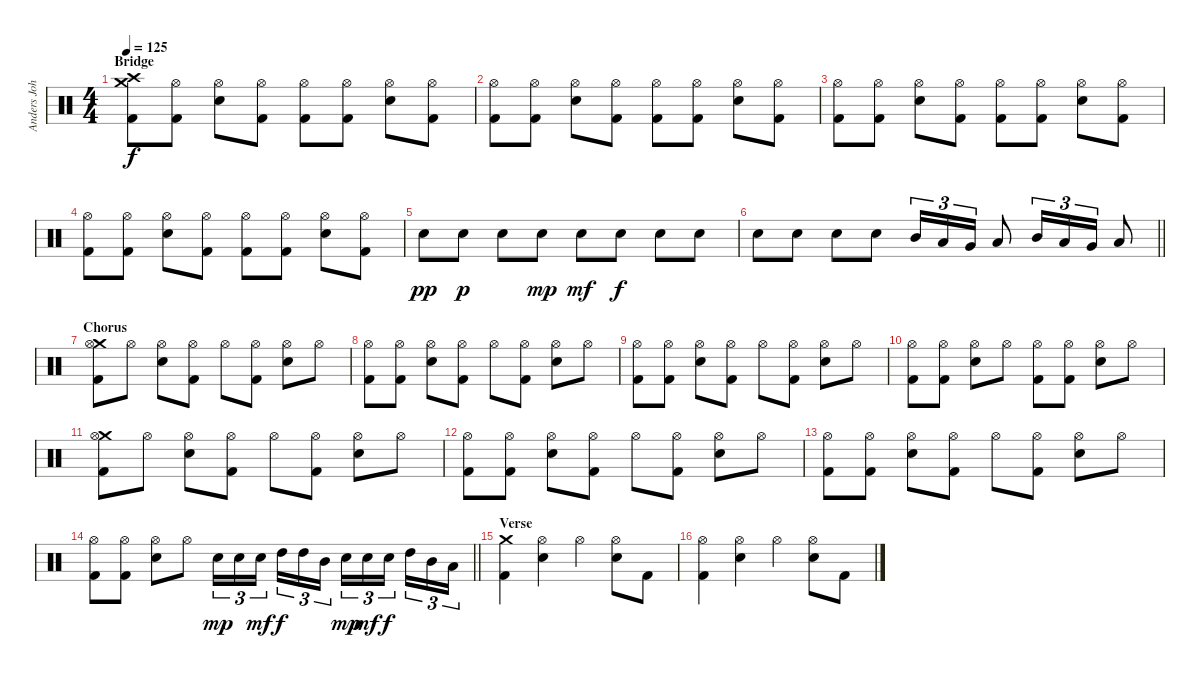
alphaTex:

\track ("Anders Johansson" "Anders Joh") {instrument percussion}
\staff {score}
\articulation defaults
\ts (4 4)
\section ("" "Bridge")
\tempo 125
\clef neutral
\ks c
("Crash high (hit)" "Crash medium (hit)" "Kick (hit) 2").8{dy f} ("Hi-Hat (open)" "Kick (hit) 2").8 ("Hi-Hat (open)" "Snare (hit) 2").8 ("Hi-Hat (open)" "Kick (hit) 2").8 ("Hi-Hat (open)" "Kick (hit) 2").8 ("Hi-Hat (open)" "Kick (hit) 2").8 ("Hi-Hat (open)" "Snare (hit) 2").8 ("Hi-Hat (open)" "Kick (hit) 2").8 |
("Hi-Hat (open)" "Kick (hit) 2").8 ("Hi-Hat (open)" "Kick (hit) 2").8 ("Hi-Hat (open)" "Snare (hit) 2").8 ("Hi-Hat (open)" "Kick (hit) 2").8 ("Hi-Hat (open)" "Kick (hit) 2").8 ("Hi-Hat (open)" "Kick (hit) 2").8 ("Hi-Hat (open)" "Snare (hit) 2").8 ("Hi-Hat (open)" "Kick (hit) 2").8 |
("Hi-Hat (open)" "Kick (hit) 2").8 ("Hi-Hat (open)" "Kick (hit) 2").8 ("Hi-Hat (open)" "Snare (hit) 2").8 ("Hi-Hat (open)" "Kick (hit) 2").8 ("Hi-Hat (open)" "Kick (hit) 2").8 ("Hi-Hat (open)" "Kick (hit) 2").8 ("Hi-Hat (open)" "Snare (hit) 2").8 ("Hi-Hat (open)" "Kick (hit) 2").8 |
("Hi-Hat (open)" "Kick (hit) 2").8 ("Hi-Hat (open)" "Kick (hit) 2").8 ("Hi-Hat (open)" "Snare (hit) 2").8 ("Hi-Hat (open)" "Kick (hit) 2").8 ("Hi-Hat (open)" "Kick (hit) 2").8 ("Hi-Hat (open)" "Kick (hit) 2").8 ("Hi-Hat (open)" "Snare (hit) 2").8 ("Hi-Hat (open)" "Kick (hit) 2").8 |
"Electric Snare (hit)".8{dy pp} "Electric Snare (hit)".8{dy p} "Electric Snare (hit)".8 "Electric Snare (hit)".8{dy mp} "Electric Snare (hit)".8{dy mf} "Electric Snare (hit)".8{dy f} "Electric Snare (hit)".8 "Electric Snare (hit)".8 |
\barLineRight lightlight "Electric Snare (hit)".8 "Electric Snare (hit)".8 "Electric Snare (hit)".8 "Electric Snare (hit)".8 "Mid Tom (hit)".16{tu (3 2)} "Low Tom (hit)".16{tu (3 2)} "Very Low Tom (hit)".16{tu (3 2)} "Low Floor Tom (hit)".8 "Mid Tom (hit)".16{tu (3 2)} "Low Tom (hit)".16{tu (3 2)} "Very Low Tom (hit)".16{tu (3 2)} "Low Floor Tom (hit)".8
|
\section ("" "Chorus")
("Crash medium (hit)" "Hi-Hat (open)" "Kick (hit) 2").8 "Hi-Hat (open)".8 ("Hi-Hat (open)" "Snare (hit) 2").8 ("Hi-Hat (open)" "Kick (hit) 2").8 "Hi-Hat (open)".8 ("Hi-Hat (open)" "Kick (hit) 2").8 ("Hi-Hat (open)" "Snare (hit) 2").8 "Hi-Hat (open)".8 |
("Hi-Hat (open)" "Kick (hit) 2").8 ("Hi-Hat (open)" "Kick (hit) 2").8 ("Hi-Hat (open)" "Snare (hit) 2").8 ("Hi-Hat (open)" "Kick (hit) 2").8 "Hi-Hat (open)".8 ("Hi-Hat (open)" "Kick (hit) 2").8 ("Hi-Hat (open)" "Snare (hit) 2").8 "Hi-Hat (open)".8 |
("Hi-Hat (open)" "Kick (hit) 2").8 ("Hi-Hat (open)" "Kick (hit) 2").8 ("Hi-Hat (open)" "Snare (hit) 2").8 ("Hi-Hat (open)" "Kick (hit) 2").8 "Hi-Hat (open)".8 ("Hi-Hat (open)" "Kick (hit) 2").8 ("Hi-Hat (open)" "Snare (hit) 2").8 "Hi-Hat (open)".8 |
("Hi-Hat (open)" "Kick (hit) 2").8 ("Hi-Hat (open)" "Kick (hit) 2").8 ("Hi-Hat (open)" "Snare (hit) 2").8 "Hi-Hat (open)".8 ("Hi-Hat (open)" "Kick (hit) 2").8 ("Hi-Hat (open)" "Kick (hit) 2").8 ("Hi-Hat (open)" "Snare (hit) 2").8 "Hi-Hat (open)".8 |
("Crash medium (hit)" "Hi-Hat (open)" "Kick (hit) 2").8 "Hi-Hat (open)".8 ("Hi-Hat (open)" "Snare (hit) 2").8 ("Hi-Hat (open)" "Kick (hit) 2").8 "Hi-Hat (open)".8 ("Hi-Hat (open)" "Kick (hit) 2").8 ("Hi-Hat (open)" "Snare (hit) 2").8 "Hi-Hat (open)".8 |
("Hi-Hat (open)" "Kick (hit) 2").8 ("Hi-Hat (open)" "Kick (hit) 2").8 ("Hi-Hat (open)" "Snare (hit) 2").8 ("Hi-Hat (open)" "Kick (hit) 2").8 "Hi-Hat (open)".8 ("Hi-Hat (open)" "Kick (hit) 2").8 ("Hi-Hat (open)" "Snare (hit) 2").8 "Hi-Hat (open)".8 |
("Hi-Hat (open)" "Kick (hit) 2").8 ("Hi-Hat (open)" "Kick (hit) 2").8 ("Hi-Hat (open)" "Snare (hit) 2").8 ("Hi-Hat (open)" "Kick (hit) 2").8 "Hi-Hat (open)".8 ("Hi-Hat (open)" "Kick (hit) 2").8 ("Hi-Hat (open)" "Snare (hit) 2").8 "Hi-Hat (open)".8 |
\barLineRight lightlight
("Hi-Hat (open)" "Kick (hit) 2").8 ("Hi-Hat (open)" "Kick (hit) 2").8 ("Hi-Hat (open)" "Snare (hit) 2").8 "Hi-Hat (open)".8 "Electric Snare (hit)".16{tu (3 2) dy mp} "Electric Snare (hit)".16{tu (3 2)} "Electric Snare (hit)".16{tu (3 2) dy mf beam splitsecondary} "High Tom (hit)".16{tu (3 2) dy f} "High Tom (hit)".16{tu (3 2)} "Mid Tom (hit)".16{tu (3 2)} "Electric Snare (hit)".16{tu (3 2) dy mp} "Electric Snare (hit)".16{tu (3 2) dy mf} "Electric Snare (hit)".16{tu (3 2) dy f beam splitsecondary} "High Tom (hit)".16{tu (3 2)} "Mid Tom (hit)".16{tu (3 2)} "Low Tom (hit)".16{tu (3 2)} |
\section ("" "Verse")
("Crash medium (hit)" "Kick (hit) 2").4 ("Hi-Hat (open)" "Snare (hit) 2").4 "Hi-Hat (open)".4 ("Hi-Hat (open)" "Snare (hit) 2").8 "Kick (hit) 2".8 |
("Hi-Hat (open)" "Kick (hit) 2").4 ("Hi-Hat (open)" "Snare (hit) 2").4 "Hi-Hat (open)".4 ("Hi-Hat (open)" "Snare (hit) 2").8 "Kick (hit) 2".8
